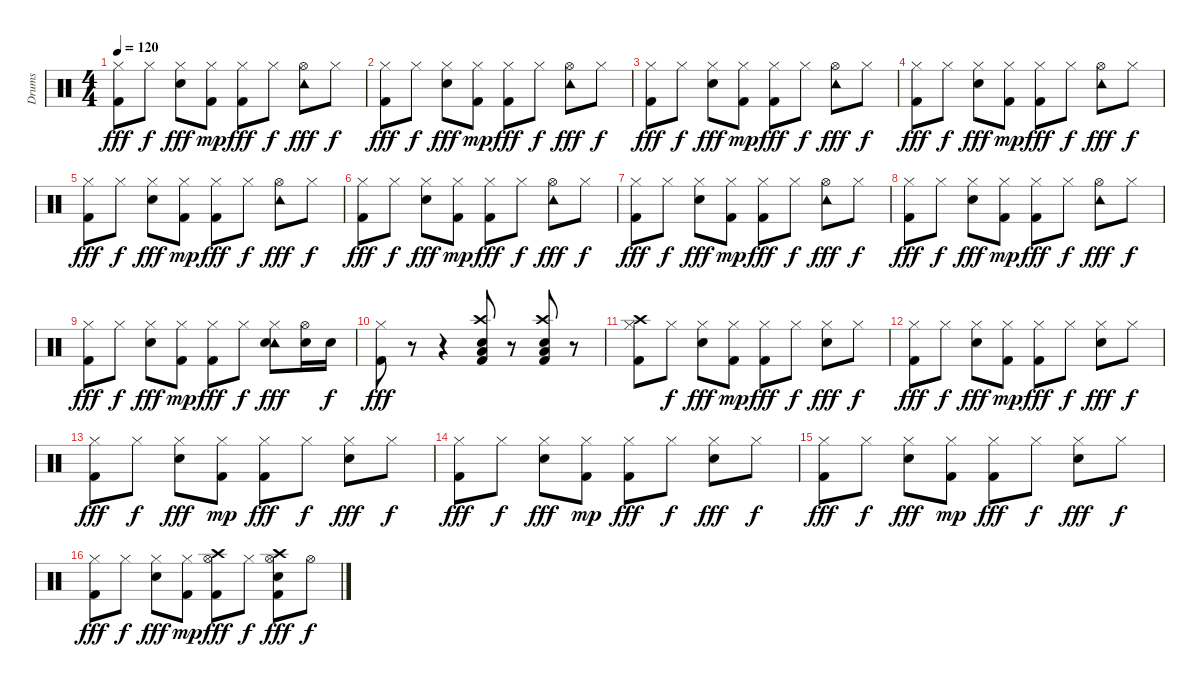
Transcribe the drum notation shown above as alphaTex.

\track ("Drums" "Drums") {instrument percussion}
\staff {score}
\articulation defaults
\ts (4 4)
\tempo 120
\clef neutral
\ks c
("Hi-Hat (closed)" "Kick (hit) 2").8{dy fff} "Hi-Hat (closed)".8{dy f} ("Hi-Hat (closed)" "Snare (hit) 2").8{dy fff} ("Hi-Hat (closed)" "Kick (hit) 2").8{dy mp} ("Hi-Hat (closed)" "Kick (hit) 2").8{dy fff} "Hi-Hat (closed)".8{dy f} ("Tambourine (hit)" "Hi-Hat (open)").8{dy fff} "Hi-Hat (closed)".8{dy f} |
("Hi-Hat (closed)" "Kick (hit) 2").8{dy fff} "Hi-Hat (closed)".8{dy f} ("Hi-Hat (closed)" "Snare (hit) 2").8{dy fff} ("Hi-Hat (closed)" "Kick (hit) 2").8{dy mp} ("Hi-Hat (closed)" "Kick (hit) 2").8{dy fff} "Hi-Hat (closed)".8{dy f} ("Tambourine (hit)" "Hi-Hat (open)").8{dy fff} "Hi-Hat (closed)".8{dy f} |
("Hi-Hat (closed)" "Kick (hit) 2").8{dy fff} "Hi-Hat (closed)".8{dy f} ("Hi-Hat (closed)" "Snare (hit) 2").8{dy fff} ("Hi-Hat (closed)" "Kick (hit) 2").8{dy mp} ("Hi-Hat (closed)" "Kick (hit) 2").8{dy fff} "Hi-Hat (closed)".8{dy f} ("Tambourine (hit)" "Hi-Hat (open)").8{dy fff} "Hi-Hat (closed)".8{dy f} |
("Hi-Hat (closed)" "Kick (hit) 2").8{dy fff} "Hi-Hat (closed)".8{dy f} ("Hi-Hat (closed)" "Snare (hit) 2").8{dy fff} ("Hi-Hat (closed)" "Kick (hit) 2").8{dy mp} ("Hi-Hat (closed)" "Kick (hit) 2").8{dy fff} "Hi-Hat (closed)".8{dy f} ("Tambourine (hit)" "Hi-Hat (open)").8{dy fff} "Hi-Hat (closed)".8{dy f} |
("Hi-Hat (closed)" "Kick (hit) 2").8{dy fff} "Hi-Hat (closed)".8{dy f} ("Hi-Hat (closed)" "Snare (hit) 2").8{dy fff} ("Hi-Hat (closed)" "Kick (hit) 2").8{dy mp} ("Hi-Hat (closed)" "Kick (hit) 2").8{dy fff} "Hi-Hat (closed)".8{dy f} ("Tambourine (hit)" "Hi-Hat (open)").8{dy fff} "Hi-Hat (closed)".8{dy f} |
("Hi-Hat (closed)" "Kick (hit) 2").8{dy fff} "Hi-Hat (closed)".8{dy f} ("Hi-Hat (closed)" "Snare (hit) 2").8{dy fff} ("Hi-Hat (closed)" "Kick (hit) 2").8{dy mp} ("Hi-Hat (closed)" "Kick (hit) 2").8{dy fff} "Hi-Hat (closed)".8{dy f} ("Tambourine (hit)" "Hi-Hat (open)").8{dy fff} "Hi-Hat (closed)".8{dy f} |
("Hi-Hat (closed)" "Kick (hit) 2").8{dy fff} "Hi-Hat (closed)".8{dy f} ("Hi-Hat (closed)" "Snare (hit) 2").8{dy fff} ("Hi-Hat (closed)" "Kick (hit) 2").8{dy mp} ("Hi-Hat (closed)" "Kick (hit) 2").8{dy fff} "Hi-Hat (closed)".8{dy f} ("Tambourine (hit)" "Hi-Hat (open)").8{dy fff} "Hi-Hat (closed)".8{dy f} |
("Hi-Hat (closed)" "Kick (hit) 2").8{dy fff} "Hi-Hat (closed)".8{dy f} ("Hi-Hat (closed)" "Snare (hit) 2").8{dy fff} ("Hi-Hat (closed)" "Kick (hit) 2").8{dy mp} ("Hi-Hat (closed)" "Kick (hit) 2").8{dy fff} "Hi-Hat (closed)".8{dy f} ("Tambourine (hit)" "Hi-Hat (open)").8{dy fff} "Hi-Hat (closed)".8{dy f} |
("Hi-Hat (closed)" "Kick (hit) 2").8{dy fff} "Hi-Hat (closed)".8{dy f} ("Hi-Hat (closed)" "Snare (hit) 2").8{dy fff} ("Hi-Hat (closed)" "Kick (hit) 2").8{dy mp} ("Hi-Hat (closed)" "Kick (hit) 2").8{dy fff} "Hi-Hat (closed)".8{dy f} ("Tambourine (hit)" "Hi-Hat (closed)" "Snare (hit) 2").8{dy fff} ("Hi-Hat (open)" "Snare (hit) 2").16 "Snare (hit) 2".16{dy f} |
("Hi-Hat (closed)" "Kick (hit) 2").8{dy fff} r.8 r.4 ("Crash high (hit)" "Low Floor Tom (hit)" "Snare (hit) 2" "Kick (hit) 2").8 r.8 ("Crash high (hit)" "Low Tom (hit)" "Snare (hit) 2" "Kick (hit) 2").8 r.8 |
("Crash high (hit)" "Hi-Hat (closed)" "Kick (hit) 2").8 "Hi-Hat (closed)".8{dy f} ("Hi-Hat (closed)" "Snare (hit) 2").8{dy fff} ("Hi-Hat (closed)" "Kick (hit) 2").8{dy mp} ("Hi-Hat (closed)" "Kick (hit) 2").8{dy fff} "Hi-Hat (closed)".8{dy f} ("Hi-Hat (closed)" "Snare (hit) 2").8{dy fff} "Hi-Hat (closed)".8{dy f} |
("Hi-Hat (closed)" "Kick (hit) 2").8{dy fff} "Hi-Hat (closed)".8{dy f} ("Hi-Hat (closed)" "Snare (hit) 2").8{dy fff} ("Hi-Hat (closed)" "Kick (hit) 2").8{dy mp} ("Hi-Hat (closed)" "Kick (hit) 2").8{dy fff} "Hi-Hat (closed)".8{dy f} ("Hi-Hat (closed)" "Snare (hit) 2").8{dy fff} "Hi-Hat (closed)".8{dy f} |
("Hi-Hat (closed)" "Kick (hit) 2").8{dy fff} "Hi-Hat (closed)".8{dy f} ("Hi-Hat (closed)" "Snare (hit) 2").8{dy fff} ("Hi-Hat (closed)" "Kick (hit) 2").8{dy mp} ("Hi-Hat (closed)" "Kick (hit) 2").8{dy fff} "Hi-Hat (closed)".8{dy f} ("Hi-Hat (closed)" "Snare (hit) 2").8{dy fff} "Hi-Hat (closed)".8{dy f} |
("Hi-Hat (closed)" "Kick (hit) 2").8{dy fff} "Hi-Hat (closed)".8{dy f} ("Hi-Hat (closed)" "Snare (hit) 2").8{dy fff} ("Hi-Hat (closed)" "Kick (hit) 2").8{dy mp} ("Hi-Hat (closed)" "Kick (hit) 2").8{dy fff} "Hi-Hat (closed)".8{dy f} ("Hi-Hat (closed)" "Snare (hit) 2").8{dy fff} "Hi-Hat (closed)".8{dy f} |
("Hi-Hat (closed)" "Kick (hit) 2").8{dy fff} "Hi-Hat (closed)".8{dy f} ("Hi-Hat (closed)" "Snare (hit) 2").8{dy fff} ("Hi-Hat (closed)" "Kick (hit) 2").8{dy mp} ("Hi-Hat (closed)" "Kick (hit) 2").8{dy fff} "Hi-Hat (closed)".8{dy f} ("Hi-Hat (closed)" "Snare (hit) 2").8{dy fff} "Hi-Hat (closed)".8{dy f} |
("Hi-Hat (closed)" "Kick (hit) 2").8{dy fff} "Hi-Hat (closed)".8{dy f} ("Hi-Hat (closed)" "Snare (hit) 2").8{dy fff} ("Hi-Hat (closed)" "Kick (hit) 2").8{dy mp} ("Crash high (hit)" "Hi-Hat (open)" "Kick (hit) 2").8{dy fff} "Hi-Hat (closed)".8{dy f} ("Crash high (hit)" "Hi-Hat (open)" "Snare (hit) 2" "Kick (hit) 2").8{dy fff} "Hi-Hat (open)".8{dy f}
